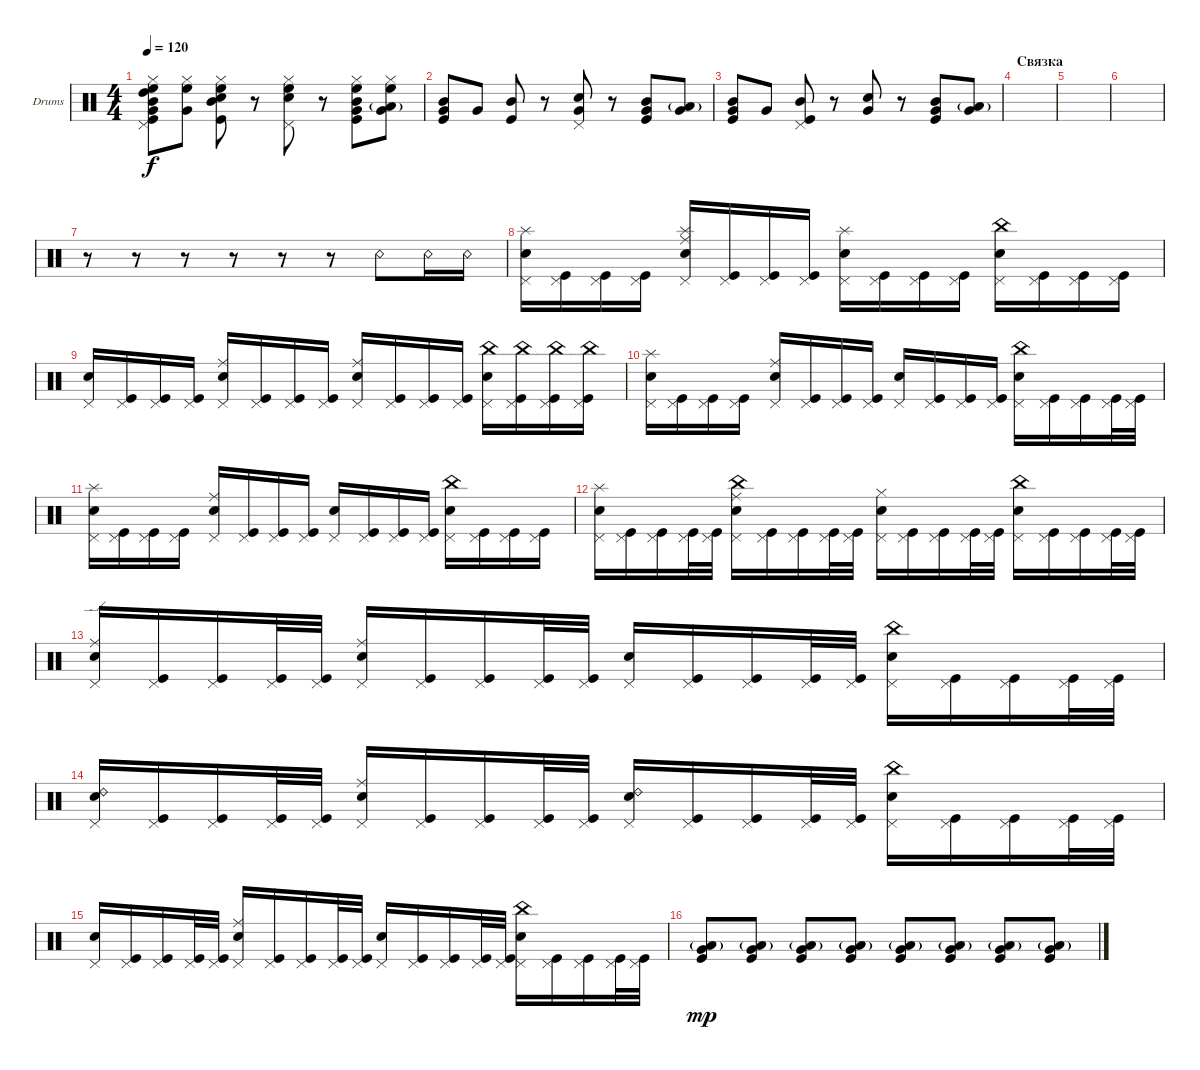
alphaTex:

\defaultSystemsLayout 4
\bracketExtendMode groupsimilarinstruments
\firstSystemTrackNameOrientation horizontal
\otherSystemsTrackNameOrientation horizontal
\track ("Drumkit" "Drums") {instrument percussion}
\staff {score}
\articulation defaults
\ts (4 4)
\tempo 120
\clef neutral
\ks c
("Mid Tom (hit)" "Very Low Tom (hit)" "Kick (hit)" "Hi-Hat (closed)" "Pedal Hi-Hat (hit)" "High Tom (hit)" "High Floor Tom (hit)").8{dy f} ("Very Low Tom (hit)" "Hi-Hat (closed)" "High Floor Tom (hit)").8 ("Mid Tom (hit)" "Kick (hit)" "Hi-Hat (closed)" "Snare (hit) 2" "High Floor Tom (hit)").8 r.8 ("Snare (hit) 2" "Pedal Hi-Hat (hit)" "Hi-Hat (closed)" "High Floor Tom (hit)").8 r.8 ("Mid Tom (hit)" "Very Low Tom (hit)" "Kick (hit)" "Hi-Hat (closed)" "High Floor Tom (hit)").8 ("Low Tom (hit)"{g} "Very Low Tom (hit)" "Hi-Hat (closed)" "High Floor Tom (hit)").8 |
("Mid Tom (hit)" "Very Low Tom (hit)" "Kick (hit)").8 "Very Low Tom (hit)".8 ("Mid Tom (hit)" "Kick (hit)").8 r.8 ("Very Low Tom (hit)" "Snare (hit) 2" "Pedal Hi-Hat (hit)").8 r.8 ("Mid Tom (hit)" "Very Low Tom (hit)" "Kick (hit)").8 ("Low Tom (hit)"{g} "Very Low Tom (hit)").8 |
("Mid Tom (hit)" "Very Low Tom (hit)" "Kick (hit)").8 "Very Low Tom (hit)".8 ("Mid Tom (hit)" "Kick (hit)" "Pedal Hi-Hat (hit)").8 r.8 ("Very Low Tom (hit)" "Snare (hit) 2").8 r.8 ("Mid Tom (hit)" "Very Low Tom (hit)" "Kick (hit)").8 ("Low Tom (hit)"{g} "Very Low Tom (hit)").8 |
\section ("" "Связка")
|
|
|
r.8 r.8 r.8 r.8 r.8 r.8 "Snare (rim shot)".8 "Snare (rim shot)".16 "Snare (rim shot)".16 |
("Snare (hit) 2" "Pedal Hi-Hat (hit)" "Splash (hit)").16 ("Kick (hit)" "Pedal Hi-Hat (hit)").16 ("Kick (hit)" "Pedal Hi-Hat (hit)").16 ("Kick (hit)" "Pedal Hi-Hat (hit)").16 ("Snare (hit) 2" "Pedal Hi-Hat (hit)" "Ride (middle)" "Splash (hit)").16 ("Kick (hit)" "Pedal Hi-Hat (hit)").16 ("Kick (hit)" "Pedal Hi-Hat (hit)").16 ("Kick (hit)" "Pedal Hi-Hat (hit)").16 ("Snare (hit) 2" "Pedal Hi-Hat (hit)" "Splash (hit)").16 ("Kick (hit)" "Pedal Hi-Hat (hit)").16 ("Kick (hit)" "Pedal Hi-Hat (hit)").16 ("Kick (hit)" "Pedal Hi-Hat (hit)").16 ("Snare (hit) 2" "Pedal Hi-Hat (hit)" "China (hit)").16 ("Kick (hit)" "Pedal Hi-Hat (hit)").16 ("Kick (hit)" "Pedal Hi-Hat (hit)").16 ("Kick (hit)" "Pedal Hi-Hat (hit)").16 |
("Snare (hit) 2" "Pedal Hi-Hat (hit)").16 ("Kick (hit)" "Pedal Hi-Hat (hit)").16 ("Kick (hit)" "Pedal Hi-Hat (hit)").16 ("Kick (hit)" "Pedal Hi-Hat (hit)").16 ("Snare (hit) 2" "Pedal Hi-Hat (hit)" "Ride (middle)").16 ("Kick (hit)" "Pedal Hi-Hat (hit)").16 ("Kick (hit)" "Pedal Hi-Hat (hit)").16 ("Kick (hit)" "Pedal Hi-Hat (hit)").16 ("Snare (hit) 2" "Pedal Hi-Hat (hit)" "Ride (middle)").16 ("Kick (hit)" "Pedal Hi-Hat (hit)").16 ("Kick (hit)" "Pedal Hi-Hat (hit)").16 ("Kick (hit)" "Pedal Hi-Hat (hit)").16 ("Snare (hit) 2" "Pedal Hi-Hat (hit)" "China (hit)").16 ("Kick (hit)" "Pedal Hi-Hat (hit)" "China (hit)").16 ("Kick (hit)" "Pedal Hi-Hat (hit)" "China (hit)").16 ("Kick (hit)" "Pedal Hi-Hat (hit)" "China (hit)").16 |
("Snare (hit) 2" "Pedal Hi-Hat (hit)" "Splash (hit)").16 ("Kick (hit)" "Pedal Hi-Hat (hit)").16 ("Kick (hit)" "Pedal Hi-Hat (hit)").16 ("Kick (hit)" "Pedal Hi-Hat (hit)").16 ("Snare (hit) 2" "Pedal Hi-Hat (hit)" "Ride (middle)").16 ("Kick (hit)" "Pedal Hi-Hat (hit)").16 ("Kick (hit)" "Pedal Hi-Hat (hit)").16 ("Kick (hit)" "Pedal Hi-Hat (hit)").16 ("Snare (hit) 2" "Pedal Hi-Hat (hit)").16 ("Kick (hit)" "Pedal Hi-Hat (hit)").16 ("Kick (hit)" "Pedal Hi-Hat (hit)").16 ("Kick (hit)" "Pedal Hi-Hat (hit)").16 ("Snare (hit) 2" "Pedal Hi-Hat (hit)" "China (hit)").16 ("Kick (hit)" "Pedal Hi-Hat (hit)").16 ("Kick (hit)" "Pedal Hi-Hat (hit)").16 ("Kick (hit)" "Pedal Hi-Hat (hit)").32 ("Kick (hit)" "Pedal Hi-Hat (hit)").32 |
("Snare (hit) 2" "Pedal Hi-Hat (hit)" "Splash (hit)").16 ("Kick (hit)" "Pedal Hi-Hat (hit)").16 ("Kick (hit)" "Pedal Hi-Hat (hit)").16 ("Kick (hit)" "Pedal Hi-Hat (hit)").16 ("Snare (hit) 2" "Pedal Hi-Hat (hit)" "Ride (middle)").16 ("Kick (hit)" "Pedal Hi-Hat (hit)").16 ("Kick (hit)" "Pedal Hi-Hat (hit)").16 ("Kick (hit)" "Pedal Hi-Hat (hit)").16 ("Snare (hit) 2" "Pedal Hi-Hat (hit)").16 ("Kick (hit)" "Pedal Hi-Hat (hit)").16 ("Kick (hit)" "Pedal Hi-Hat (hit)").16 ("Kick (hit)" "Pedal Hi-Hat (hit)").16 ("Snare (hit) 2" "Pedal Hi-Hat (hit)" "China (hit)").16 ("Kick (hit)" "Pedal Hi-Hat (hit)").16 ("Kick (hit)" "Pedal Hi-Hat (hit)").16 ("Kick (hit)" "Pedal Hi-Hat (hit)").16 |
("Snare (hit) 2" "Pedal Hi-Hat (hit)" "Splash (hit)").16 ("Kick (hit)" "Pedal Hi-Hat (hit)").16 ("Kick (hit)" "Pedal Hi-Hat (hit)").16 ("Kick (hit)" "Pedal Hi-Hat (hit)").32 ("Kick (hit)" "Pedal Hi-Hat (hit)").32 ("Snare (hit) 2" "Pedal Hi-Hat (hit)" "Ride (middle)" "China (hit)").16 ("Kick (hit)" "Pedal Hi-Hat (hit)").16 ("Kick (hit)" "Pedal Hi-Hat (hit)").16 ("Kick (hit)" "Pedal Hi-Hat (hit)").32 ("Kick (hit)" "Pedal Hi-Hat (hit)").32 ("Snare (hit) 2" "Pedal Hi-Hat (hit)" "Hi-Hat (closed)").16 ("Kick (hit)" "Pedal Hi-Hat (hit)").16 ("Kick (hit)" "Pedal Hi-Hat (hit)").16 ("Kick (hit)" "Pedal Hi-Hat (hit)").32 ("Kick (hit)" "Pedal Hi-Hat (hit)").32 ("Snare (hit) 2" "Pedal Hi-Hat (hit)" "China (hit)").16 ("Kick (hit)" "Pedal Hi-Hat (hit)").16 ("Kick (hit)" "Pedal Hi-Hat (hit)").16 ("Kick (hit)" "Pedal Hi-Hat (hit)").32 ("Kick (hit)" "Pedal Hi-Hat (hit)").32 |
("Snare (hit) 2" "Pedal Hi-Hat (hit)" "Ride (edge)").16 ("Kick (hit)" "Pedal Hi-Hat (hit)").16 ("Kick (hit)" "Pedal Hi-Hat (hit)").16 ("Kick (hit)" "Pedal Hi-Hat (hit)").32 ("Kick (hit)" "Pedal Hi-Hat (hit)").32 ("Snare (hit) 2" "Pedal Hi-Hat (hit)" "Ride (middle)").16 ("Kick (hit)" "Pedal Hi-Hat (hit)").16 ("Kick (hit)" "Pedal Hi-Hat (hit)").16 ("Kick (hit)" "Pedal Hi-Hat (hit)").32 ("Kick (hit)" "Pedal Hi-Hat (hit)").32 ("Snare (hit) 2" "Pedal Hi-Hat (hit)").16 ("Kick (hit)" "Pedal Hi-Hat (hit)").16 ("Kick (hit)" "Pedal Hi-Hat (hit)").16 ("Kick (hit)" "Pedal Hi-Hat (hit)").32 ("Kick (hit)" "Pedal Hi-Hat (hit)").32 ("Snare (hit) 2" "Pedal Hi-Hat (hit)" "China (hit)").16 ("Kick (hit)" "Pedal Hi-Hat (hit)").16 ("Kick (hit)" "Pedal Hi-Hat (hit)").16 ("Kick (hit)" "Pedal Hi-Hat (hit)").32 ("Kick (hit)" "Pedal Hi-Hat (hit)").32 |
("Snare (hit) 2" "Pedal Hi-Hat (hit)" "Ride (bell) 2").16 ("Kick (hit)" "Pedal Hi-Hat (hit)").16 ("Kick (hit)" "Pedal Hi-Hat (hit)").16 ("Kick (hit)" "Pedal Hi-Hat (hit)").32 ("Kick (hit)" "Pedal Hi-Hat (hit)").32 ("Snare (hit) 2" "Pedal Hi-Hat (hit)" "Ride (middle)").16 ("Kick (hit)" "Pedal Hi-Hat (hit)").16 ("Kick (hit)" "Pedal Hi-Hat (hit)").16 ("Kick (hit)" "Pedal Hi-Hat (hit)").32 ("Kick (hit)" "Pedal Hi-Hat (hit)").32 ("Snare (hit) 2" "Pedal Hi-Hat (hit)" "Ride (bell) 2").16 ("Kick (hit)" "Pedal Hi-Hat (hit)").16 ("Kick (hit)" "Pedal Hi-Hat (hit)").16 ("Kick (hit)" "Pedal Hi-Hat (hit)").32 ("Kick (hit)" "Pedal Hi-Hat (hit)").32 ("Snare (hit) 2" "Pedal Hi-Hat (hit)" "China (hit)").16 ("Kick (hit)" "Pedal Hi-Hat (hit)").16 ("Kick (hit)" "Pedal Hi-Hat (hit)").16 ("Kick (hit)" "Pedal Hi-Hat (hit)").32 ("Kick (hit)" "Pedal Hi-Hat (hit)").32 |
("Snare (hit) 2" "Pedal Hi-Hat (hit)").16 ("Kick (hit)" "Pedal Hi-Hat (hit)").16 ("Kick (hit)" "Pedal Hi-Hat (hit)").16 ("Kick (hit)" "Pedal Hi-Hat (hit)").32 ("Kick (hit)" "Pedal Hi-Hat (hit)").32 ("Snare (hit) 2" "Pedal Hi-Hat (hit)" "Ride (middle)").16 ("Kick (hit)" "Pedal Hi-Hat (hit)").16 ("Kick (hit)" "Pedal Hi-Hat (hit)").16 ("Kick (hit)" "Pedal Hi-Hat (hit)").32 ("Kick (hit)" "Pedal Hi-Hat (hit)").32 ("Snare (hit) 2" "Pedal Hi-Hat (hit)").16 ("Kick (hit)" "Pedal Hi-Hat (hit)").16 ("Kick (hit)" "Pedal Hi-Hat (hit)").16 ("Kick (hit)" "Pedal Hi-Hat (hit)").32 ("Kick (hit)" "Pedal Hi-Hat (hit)").32 ("Snare (hit) 2" "Pedal Hi-Hat (hit)" "China (hit)").16 ("Kick (hit)" "Pedal Hi-Hat (hit)").16 ("Kick (hit)" "Pedal Hi-Hat (hit)").16 ("Kick (hit)" "Pedal Hi-Hat (hit)").32 ("Kick (hit)" "Pedal Hi-Hat (hit)").32 |
("Very Low Tom (hit)" "Low Tom (hit)"{g} "Kick (hit)").8{dy mp} ("Very Low Tom (hit)" "Low Tom (hit)"{g} "Kick (hit)").8 ("Very Low Tom (hit)" "Low Tom (hit)"{g} "Kick (hit)").8 ("Very Low Tom (hit)" "Low Tom (hit)"{g} "Kick (hit)").8 ("Very Low Tom (hit)" "Low Tom (hit)"{g} "Kick (hit)").8 ("Very Low Tom (hit)" "Low Tom (hit)"{g} "Kick (hit)").8 ("Very Low Tom (hit)" "Low Tom (hit)"{g} "Kick (hit)").8 ("Very Low Tom (hit)" "Low Tom (hit)"{g} "Kick (hit)").8
